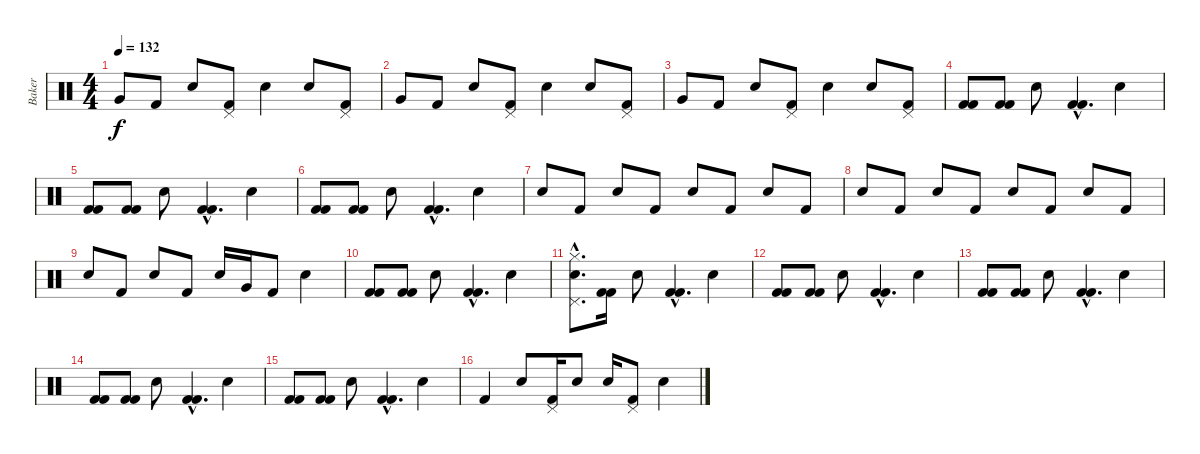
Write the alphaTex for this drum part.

\track ("Baker" "Baker") {instrument percussion}
\staff {score}
\articulation defaults
\ts (4 4)
\tempo 132
\clef neutral
\ks c "Very Low Tom (hit)".8{dy f} "Kick (hit) 2".8 "Snare (hit) 2".8
("Pedal Hi-Hat (hit)" "Kick (hit) 2").8 "Snare (hit) 2".4 "Snare (hit) 2".8 ("Pedal Hi-Hat (hit)" "Kick (hit) 2").8 |
"Very Low Tom (hit)".8 "Kick (hit) 2".8 "Snare (hit) 2".8 ("Pedal Hi-Hat (hit)" "Kick (hit) 2").8 "Snare (hit) 2".4 "Snare (hit) 2".8 ("Pedal Hi-Hat (hit)" "Kick (hit) 2").8 |
"Very Low Tom (hit)".8 "Kick (hit) 2".8 "Snare (hit) 2".8 ("Pedal Hi-Hat (hit)" "Kick (hit) 2").8 "Snare (hit) 2".4 "Snare (hit) 2".8 ("Pedal Hi-Hat (hit)" "Kick (hit) 2").8 |
("Kick (hit) 2" "Kick (hit) 2").8 ("Kick (hit) 2" "Kick (hit) 2").8 "Snare (hit) 2".8 ("Kick (hit) 2"{hac} "Kick (hit) 2"{hac}).4{d} "Snare (hit) 2".4 |
("Kick (hit) 2" "Kick (hit) 2").8 ("Kick (hit) 2" "Kick (hit) 2").8 "Snare (hit) 2".8 ("Kick (hit) 2"{hac} "Kick (hit) 2"{hac}).4{d} "Snare (hit) 2".4 |
("Kick (hit) 2" "Kick (hit) 2").8 ("Kick (hit) 2" "Kick (hit) 2").8 "Snare (hit) 2".8 ("Kick (hit) 2"{hac} "Kick (hit) 2"{hac}).4{d} "Snare (hit) 2".4 |
"Snare (hit) 2".8 "Kick (hit) 2".8 "Snare (hit) 2".8 "Kick (hit) 2".8 "Snare (hit) 2".8 "Kick (hit) 2".8 "Snare (hit) 2".8 "Kick (hit) 2".8 |
"Snare (hit) 2".8 "Kick (hit) 2".8 "Snare (hit) 2".8 "Kick (hit) 2".8 "Snare (hit) 2".8 "Kick (hit) 2".8 "Snare (hit) 2".8 "Kick (hit) 2".8 |
"Snare (hit) 2".8 "Kick (hit) 2".8 "Snare (hit) 2".8 "Kick (hit) 2".8 "Electric Snare (hit)".16 "Very Low Tom (hit)".16 "Kick (hit) 2".8 "Snare (hit) 2".4 |
("Kick (hit) 2" "Kick (hit) 2").8 ("Kick (hit) 2" "Kick (hit) 2").8 "Snare (hit) 2".8 ("Kick (hit) 2"{hac} "Kick (hit) 2"{hac}).4{d} "Snare (hit) 2".4 |
("Snare (hit) 2"{hac} "Hi-Hat (closed)"{hac} "Pedal Hi-Hat (hit)"{hac}).8{d} ("Kick (hit) 2" "Kick (hit) 2").16 "Snare (hit) 2".8 ("Kick (hit) 2"{hac} "Kick (hit) 2"{hac}).4{d} "Snare (hit) 2".4 |
("Kick (hit) 2" "Kick (hit) 2").8 ("Kick (hit) 2" "Kick (hit) 2").8 "Snare (hit) 2".8 ("Kick (hit) 2"{hac} "Kick (hit) 2"{hac}).4{d} "Snare (hit) 2".4 |
("Kick (hit) 2" "Kick (hit) 2").8 ("Kick (hit) 2" "Kick (hit) 2").8 "Snare (hit) 2".8 ("Kick (hit) 2"{hac} "Kick (hit) 2"{hac}).4{d} "Snare (hit) 2".4 |
("Kick (hit) 2" "Kick (hit) 2").8 ("Kick (hit) 2" "Kick (hit) 2").8 "Snare (hit) 2".8 ("Kick (hit) 2"{hac} "Kick (hit) 2"{hac}).4{d} "Snare (hit) 2".4 |
("Kick (hit) 2" "Kick (hit) 2").8 ("Kick (hit) 2" "Kick (hit) 2").8 "Snare (hit) 2".8 ("Kick (hit) 2"{hac} "Kick (hit) 2"{hac}).4{d} "Snare (hit) 2".4 |
"Kick (hit) 2".4 "Snare (hit) 2".8 ("Pedal Hi-Hat (hit)" "Kick (hit) 2").16 "Snare (hit) 2".8 "Snare (hit) 2".16 ("Pedal Hi-Hat (hit)" "Kick (hit) 2").8 "Snare (hit) 2".4
